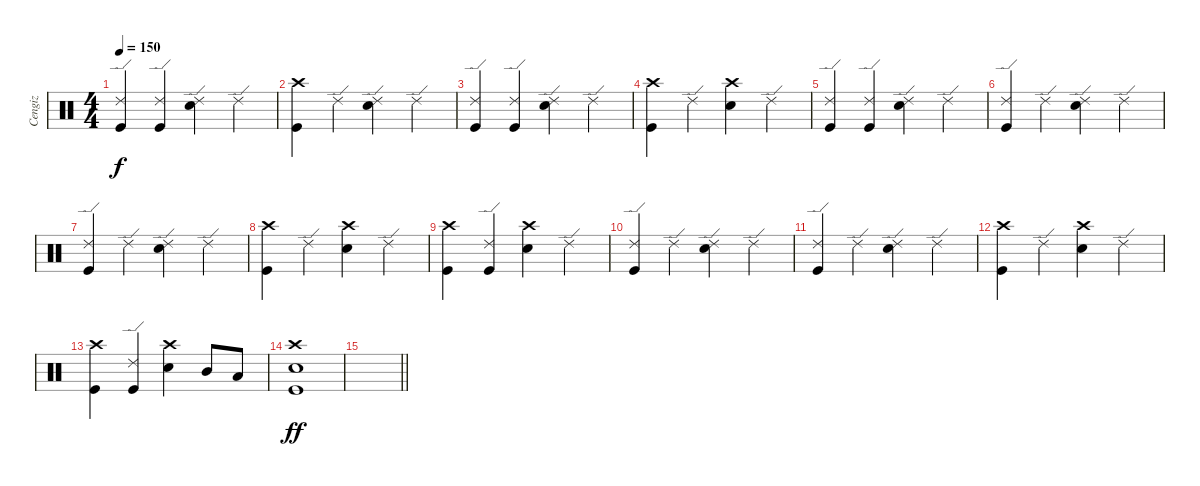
\track ("Cengiz" "Cengiz") {instrument percussion}
\staff {score}
\articulation defaults
\ts (4 4)
\tempo 150
\clef neutral
\ks c
("Ride (edge) 2" "Kick (hit)").4{dy f} ("Ride (edge) 2" "Kick (hit)").4 ("Ride (edge) 2" "Snare (hit) 2").4 "Ride (edge) 2".4 |
("Crash high (hit)" "Kick (hit)").4 "Ride (edge) 2".4 ("Ride (edge) 2" "Snare (hit) 2").4 "Ride (edge) 2".4 |
("Ride (edge) 2" "Kick (hit)").4 ("Ride (edge) 2" "Kick (hit)").4 ("Ride (edge) 2" "Snare (hit) 2").4 "Ride (edge) 2".4 |
("Crash high (hit)" "Kick (hit)").4 "Ride (edge) 2".4 ("Crash high (hit)" "Snare (hit) 2").4 "Ride (edge) 2".4 |
("Ride (edge) 2" "Kick (hit)").4 ("Ride (edge) 2" "Kick (hit)").4 ("Ride (edge) 2" "Snare (hit) 2").4 "Ride (edge) 2".4 |
("Ride (edge) 2" "Kick (hit)").4 "Ride (edge) 2".4 ("Ride (edge) 2" "Snare (hit) 2").4 "Ride (edge) 2".4 |
("Ride (edge) 2" "Kick (hit)").4 "Ride (edge) 2".4 ("Ride (edge) 2" "Snare (hit) 2").4 "Ride (edge) 2".4 |
("Crash high (hit)" "Kick (hit)").4 "Ride (edge) 2".4 ("Crash high (hit)" "Snare (hit) 2").4 "Ride (edge) 2".4 |
("Crash high (hit)" "Kick (hit)").4 ("Ride (edge) 2" "Kick (hit)").4 ("Crash high (hit)" "Snare (hit) 2").4 "Ride (edge) 2".4 |
("Ride (edge) 2" "Kick (hit)").4 "Ride (edge) 2".4 ("Ride (edge) 2" "Snare (hit) 2").4 "Ride (edge) 2".4 |
("Ride (edge) 2" "Kick (hit)").4 "Ride (edge) 2".4 ("Ride (edge) 2" "Snare (hit) 2").4 "Ride (edge) 2".4 |
("Crash high (hit)" "Kick (hit)").4 "Ride (edge) 2".4 ("Crash high (hit)" "Snare (hit) 2").4 "Ride (edge) 2".4 |
("Crash high (hit)" "Kick (hit)").4 ("Ride (edge) 2" "Kick (hit)").4 ("Crash high (hit)" "Snare (hit) 2").4 "Mid Tom (hit)".8 "Low Tom (hit)".8 |
("Crash high (hit)" "Snare (hit) 2" "Kick (hit)").1{dy ff} |
\barLineRight lightlight
